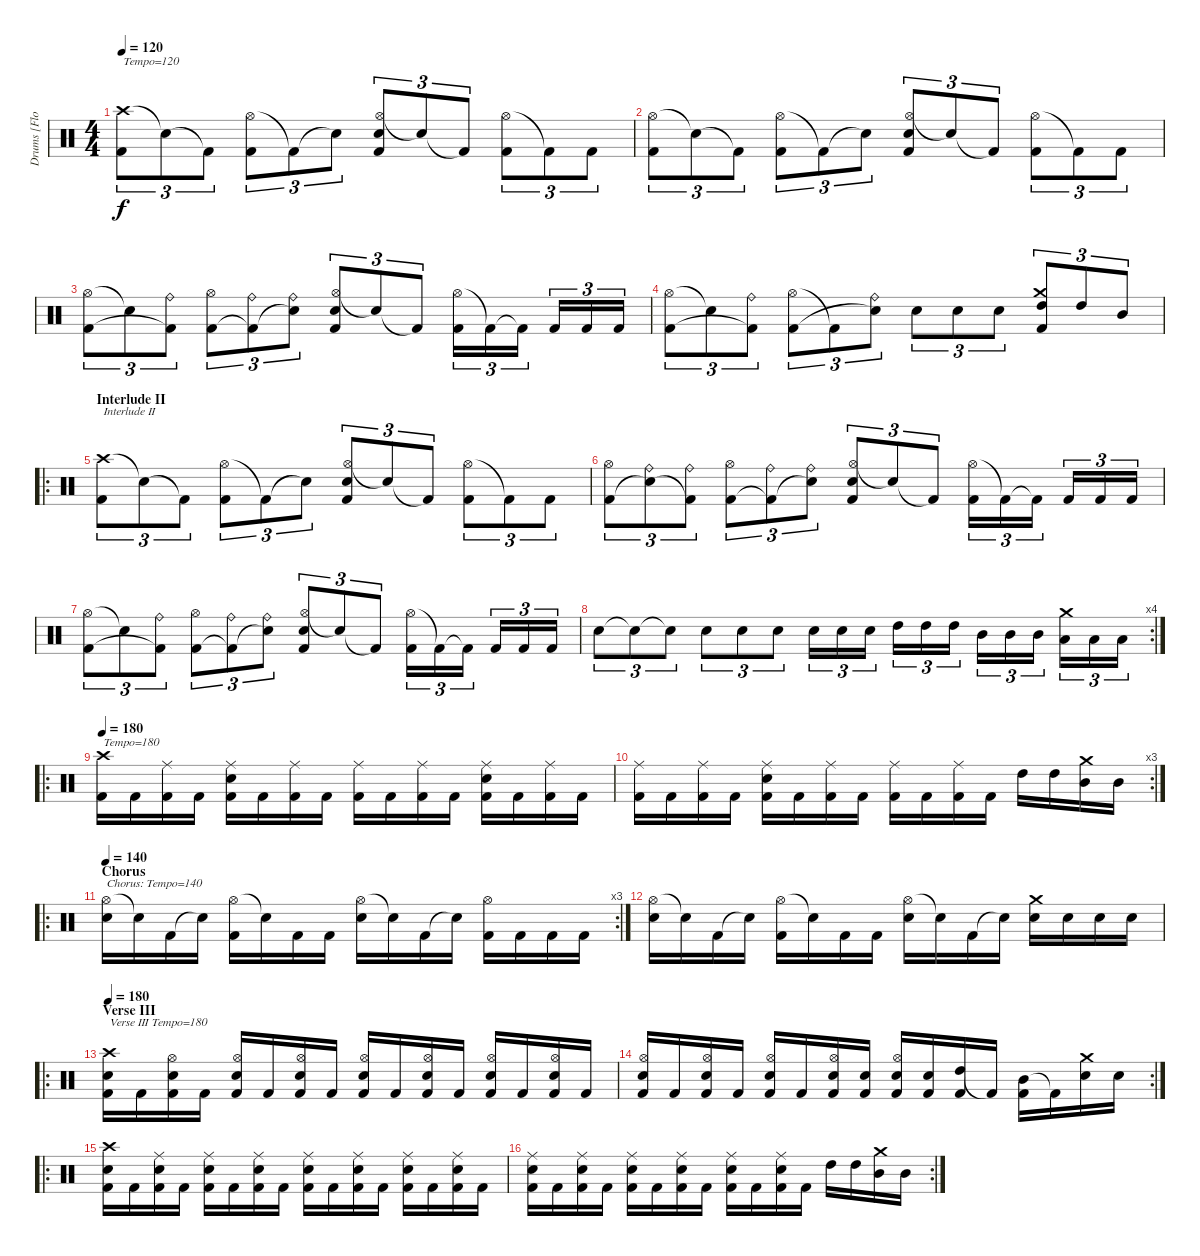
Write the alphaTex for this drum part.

\track ("Drums [Flo Mournier]" "Drums [Flo") {instrument percussion}
\staff {score}
\articulation defaults
\ts (4 4)
\tempo 120
\clef neutral
\ks c
("Crash high (hit)" "Kick (hit) 2").8{tu (3 2) txt "Tempo=120" dy f} "Snare (hit)"{t}.8{tu (3 2)} "Kick (hit) 2"{t}.8{tu (3 2)} ("Hi-Hat (open)" "Kick (hit) 2").8{tu (3 2)} "Kick (hit) 2"{t}.8{tu (3 2)} "Snare (hit)"{t}.8{tu (3 2)} ("Hi-Hat (open)" "Electric Snare (hit)" "Kick (hit) 2").8{tu (3 2)} "Snare (hit)"{t}.8{tu (3 2)} "Kick (hit) 2"{t}.8{tu (3 2)} ("Hi-Hat (open)" "Kick (hit) 2").8{tu (3 2)} "Kick (hit) 2"{t}.8{tu (3 2)} "Kick (hit) 2".8{tu (3 2)} |
("Hi-Hat (open)" "Kick (hit) 2").8{tu (3 2)} "Snare (hit)"{t}.8{tu (3 2)} "Kick (hit) 2"{t}.8{tu (3 2)} ("Hi-Hat (open)" "Kick (hit) 2").8{tu (3 2)} "Kick (hit) 2"{t}.8{tu (3 2)} "Snare (hit)"{t}.8{tu (3 2)} ("Hi-Hat (open)" "Electric Snare (hit)" "Kick (hit) 2").8{tu (3 2)} "Snare (hit)"{t}.8{tu (3 2)} "Kick (hit) 2"{t}.8{tu (3 2)} ("Hi-Hat (open)" "Kick (hit) 2").8{tu (3 2)} "Kick (hit) 2"{t}.8{tu (3 2)} "Kick (hit) 2".8{tu (3 2)} |
("Hi-Hat (open)" "Kick (hit) 2").8{tu (3 2)} "Snare (hit)"{t}.8{tu (3 2)} ("Ride (bell)" "Kick (hit) 2"{t}).8{tu (3 2)} ("Hi-Hat (open)" "Kick (hit) 2").8{tu (3 2)} ("Ride (bell)" "Kick (hit) 2"{t}).8{tu (3 2)} ("Ride (bell)" "Snare (hit)"{t}).8{tu (3 2)} ("Hi-Hat (open)" "Electric Snare (hit)" "Kick (hit) 2").8{tu (3 2)} "Snare (hit)"{t}.8{tu (3 2)} "Kick (hit) 2"{t}.8{tu (3 2)} ("Hi-Hat (open)" "Kick (hit) 2").16{tu (3 2)} "Kick (hit) 2"{t}.16{tu (3 2)} "Kick (hit) 2"{t}.16{tu (3 2)} "Kick (hit) 2".16{tu (3 2)} "Kick (hit) 2".16{tu (3 2)} "Kick (hit) 2".16{tu (3 2)} |
("Hi-Hat (open)" "Kick (hit) 2").8{tu (3 2)} "Snare (hit)"{t}.8{tu (3 2)} ("Ride (bell)" "Kick (hit) 2"{t}).8{tu (3 2)} ("Hi-Hat (open)" "Kick (hit) 2").8{tu (3 2)} "Kick (hit) 2"{t}.8{tu (3 2)} ("Ride (bell)" "Snare (hit)"{t}).8{tu (3 2)} "Electric Snare (hit)".8{tu (3 2)} "Electric Snare (hit)".8{tu (3 2)} "Electric Snare (hit)".8{tu (3 2)} ("Crash medium (hit)" "High Tom (hit)" "Kick (hit) 2").8{tu (3 2)} "High Tom (hit)".8{tu (3 2)} "Mid Tom (hit)".8{tu (3 2)} |
\ro
\section ("" "Interlude II")
("Crash high (hit)" "Kick (hit) 2").8{tu (3 2) txt "Interlude II"} "Snare (hit)"{t}.8{tu (3 2)} "Kick (hit) 2"{t}.8{tu (3 2)} ("Hi-Hat (open)" "Kick (hit) 2").8{tu (3 2)} "Kick (hit) 2"{t}.8{tu (3 2)} "Snare (hit)"{t}.8{tu (3 2)} ("Hi-Hat (open)" "Electric Snare (hit)" "Kick (hit) 2").8{tu (3 2)} "Snare (hit)"{t}.8{tu (3 2)} "Kick (hit) 2"{t}.8{tu (3 2)} ("Hi-Hat (open)" "Kick (hit) 2").8{tu (3 2)} "Kick (hit) 2"{t}.8{tu (3 2)} "Kick (hit) 2".8{tu (3 2)} |
("Hi-Hat (open)" "Kick (hit) 2").8{tu (3 2)} ("Ride (bell)" "Snare (hit)"{t}).8{tu (3 2)} ("Ride (bell)" "Kick (hit) 2"{t}).8{tu (3 2)} ("Hi-Hat (open)" "Kick (hit) 2").8{tu (3 2)} ("Ride (bell)" "Kick (hit) 2"{t}).8{tu (3 2)} ("Ride (bell)" "Snare (hit)"{t}).8{tu (3 2)} ("Hi-Hat (open)" "Electric Snare (hit)" "Kick (hit) 2").8{tu (3 2)} "Snare (hit)"{t}.8{tu (3 2)} "Kick (hit) 2"{t}.8{tu (3 2)} ("Hi-Hat (open)" "Kick (hit) 2").16{tu (3 2)} "Kick (hit) 2"{t}.16{tu (3 2)} "Kick (hit) 2"{t}.16{tu (3 2)} "Kick (hit) 2".16{tu (3 2)} "Kick (hit) 2".16{tu (3 2)} "Kick (hit) 2".16{tu (3 2)} |
("Hi-Hat (open)" "Kick (hit) 2").8{tu (3 2)} "Snare (hit)"{t}.8{tu (3 2)} ("Ride (bell)" "Kick (hit) 2"{t}).8{tu (3 2)} ("Hi-Hat (open)" "Kick (hit) 2").8{tu (3 2)} ("Ride (bell)" "Kick (hit) 2"{t}).8{tu (3 2)} ("Ride (bell)" "Snare (hit)"{t}).8{tu (3 2)} ("Hi-Hat (open)" "Electric Snare (hit)" "Kick (hit) 2").8{tu (3 2)} "Snare (hit)"{t}.8{tu (3 2)} "Kick (hit) 2"{t}.8{tu (3 2)} ("Hi-Hat (open)" "Kick (hit) 2").16{tu (3 2)} "Kick (hit) 2"{t}.16{tu (3 2)} "Kick (hit) 2"{t}.16{tu (3 2)} "Kick (hit) 2".16{tu (3 2)} "Kick (hit) 2".16{tu (3 2)} "Kick (hit) 2".16{tu (3 2)} |
\rc 4 "Electric Snare (hit)".8{tu (3 2)} "Snare (hit)"{t}.8{tu (3 2)} "Snare (hit)"{t}.8{tu (3 2)} "Electric Snare (hit)".8{tu (3 2)} "Electric Snare (hit)".8{tu (3 2)} "Electric Snare (hit)".8{tu (3 2)} "Electric Snare (hit)".16{tu (3 2)} "Electric Snare (hit)".16{tu (3 2)} "Electric Snare (hit)".16{tu (3 2)} "High Tom (hit)".16{tu (3 2)} "High Tom (hit)".16{tu (3 2)} "High Tom (hit)".16{tu (3 2)} "Mid Tom (hit)".16{tu (3 2)} "Mid Tom (hit)".16{tu (3 2)} "Mid Tom (hit)".16{tu (3 2)}
("Crash medium (hit)" "Low Tom (hit)").16{tu (3 2)} "Low Tom (hit)".16{tu (3 2)} "Low Tom (hit)".16{tu (3 2)} |
\ro
\tempo 180
("Crash high (hit)" "Kick (hit) 2").16{txt "Tempo=180"} "Kick (hit) 2".16 ("Ride (middle)" "Kick (hit) 2").16 "Kick (hit) 2".16 ("Ride (middle)" "Electric Snare (hit)" "Kick (hit) 2").16 "Kick (hit) 2".16 ("Ride (middle)" "Kick (hit) 2").16 "Kick (hit) 2".16 ("Ride (middle)" "Kick (hit) 2").16 "Kick (hit) 2".16 ("Ride (middle)" "Kick (hit) 2").16 "Kick (hit) 2".16 ("Ride (middle)" "Electric Snare (hit)" "Kick (hit) 2").16 "Kick (hit) 2".16 ("Ride (middle)" "Kick (hit) 2").16 "Kick (hit) 2".16 |
\rc 3
("Ride (middle)" "Kick (hit) 2").16 "Kick (hit) 2".16 ("Ride (middle)" "Kick (hit) 2").16 "Kick (hit) 2".16 ("Ride (middle)" "Electric Snare (hit)" "Kick (hit) 2").16 "Kick (hit) 2".16 ("Ride (middle)" "Kick (hit) 2").16 "Kick (hit) 2".16 ("Ride (middle)" "Kick (hit) 2").16 "Kick (hit) 2".16 ("Ride (middle)" "Kick (hit) 2").16 "Kick (hit) 2".16 "High Tom (hit)".16 "High Tom (hit)".16 ("Crash medium (hit)" "Mid Tom (hit)").16 "Mid Tom (hit)".16 |
\ro
\rc 3
\section ("" "Chorus")
\tempo 140
("Hi-Hat (open)" "Electric Snare (hit)").16{txt "Chorus: Tempo=140"} "Snare (hit)"{t}.16 "Kick (hit) 2".16 "Snare (hit)"{t}.16 ("Hi-Hat (open)" "Kick (hit) 2").16 "Snare (hit)"{t}.16 "Kick (hit) 2".16 "Kick (hit) 2".16 ("Hi-Hat (open)" "Electric Snare (hit)").16 "Snare (hit)"{t}.16 "Kick (hit) 2".16 "Snare (hit)"{t}.16 ("Hi-Hat (open)" "Kick (hit) 2").16 "Kick (hit) 2".16 "Kick (hit) 2".16 "Kick (hit) 2".16 |
("Hi-Hat (open)" "Electric Snare (hit)").16 "Snare (hit)"{t}.16 "Kick (hit) 2".16 "Snare (hit)"{t}.16 ("Hi-Hat (open)" "Kick (hit) 2").16 "Snare (hit)"{t}.16 "Kick (hit) 2".16 "Kick (hit) 2".16 ("Hi-Hat (open)" "Electric Snare (hit)").16 "Snare (hit)"{t}.16 "Kick (hit) 2".16 "Snare (hit)"{t}.16 ("Crash medium (hit)" "Electric Snare (hit)").16 "Electric Snare (hit)".16 "Electric Snare (hit)".16 "Electric Snare (hit)".16 |
\ro
\section ("" "Verse III")
\tempo 180
("Crash high (hit)" "Electric Snare (hit)" "Kick (hit) 2").16{txt "Verse III Tempo=180"} "Kick (hit) 2".16 ("Hi-Hat (open)" "Electric Snare (hit)" "Kick (hit) 2").16 "Kick (hit) 2".16 ("Hi-Hat (open)" "Electric Snare (hit)" "Kick (hit) 2").16 "Kick (hit) 2".16 ("Hi-Hat (open)" "Electric Snare (hit)" "Kick (hit) 2").16 "Kick (hit) 2".16 ("Hi-Hat (open)" "Electric Snare (hit)" "Kick (hit) 2").16 "Kick (hit) 2".16 ("Hi-Hat (open)" "Electric Snare (hit)" "Kick (hit) 2").16 "Kick (hit) 2".16 ("Hi-Hat (open)" "Electric Snare (hit)" "Kick (hit) 2").16 "Kick (hit) 2".16 ("Hi-Hat (open)" "Electric Snare (hit)" "Kick (hit) 2").16 "Kick (hit) 2".16 |
\rc 2
("Hi-Hat (open)" "Electric Snare (hit)" "Kick (hit) 2").16 "Kick (hit) 2".16 ("Hi-Hat (open)" "Electric Snare (hit)" "Kick (hit) 2").16 "Kick (hit) 2".16 ("Hi-Hat (open)" "Electric Snare (hit)" "Kick (hit) 2").16 "Kick (hit) 2".16 ("Hi-Hat (open)" "Electric Snare (hit)" "Kick (hit) 2").16 ("Electric Snare (hit)" "Kick (hit) 2").16 ("Hi-Hat (open)" "Electric Snare (hit)" "Kick (hit) 2").16 ("Electric Snare (hit)" "Kick (hit) 2").16 ("High Tom (hit)" "Kick (hit) 2").16 "Kick (hit) 2"{t}.16 ("Mid Tom (hit)" "Kick (hit) 2").16 "Kick (hit) 2"{t}.16 ("Crash medium (hit)" "Electric Snare (hit)").16 "Electric Snare (hit)".16 |
\ro
("Crash high (hit)" "Electric Snare (hit)" "Kick (hit) 2").16 "Kick (hit) 2".16 ("Ride (middle)" "Electric Snare (hit)" "Kick (hit) 2").16 "Kick (hit) 2".16 ("Ride (middle)" "Electric Snare (hit)" "Kick (hit) 2").16 "Kick (hit) 2".16 ("Ride (middle)" "Electric Snare (hit)" "Kick (hit) 2").16 "Kick (hit) 2".16 ("Ride (middle)" "Electric Snare (hit)" "Kick (hit) 2").16 "Kick (hit) 2".16 ("Ride (middle)" "Electric Snare (hit)" "Kick (hit) 2").16 "Kick (hit) 2".16 ("Ride (middle)" "Electric Snare (hit)" "Kick (hit) 2").16 "Kick (hit) 2".16 ("Ride (middle)" "Electric Snare (hit)" "Kick (hit) 2").16 "Kick (hit) 2".16 |
\rc 2
("Ride (middle)" "Electric Snare (hit)" "Kick (hit) 2").16 "Kick (hit) 2".16 ("Ride (middle)" "Electric Snare (hit)" "Kick (hit) 2").16 "Kick (hit) 2".16 ("Ride (middle)" "Electric Snare (hit)" "Kick (hit) 2").16 "Kick (hit) 2".16 ("Ride (middle)" "Electric Snare (hit)" "Kick (hit) 2").16 "Kick (hit) 2".16 ("Ride (middle)" "Electric Snare (hit)" "Kick (hit) 2").16 "Kick (hit) 2".16 ("Ride (middle)" "Electric Snare (hit)" "Kick (hit) 2").16 "Kick (hit) 2".16 "High Tom (hit)".16 "High Tom (hit)".16 ("Crash medium (hit)" "Mid Tom (hit)").16 "Mid Tom (hit)".16
